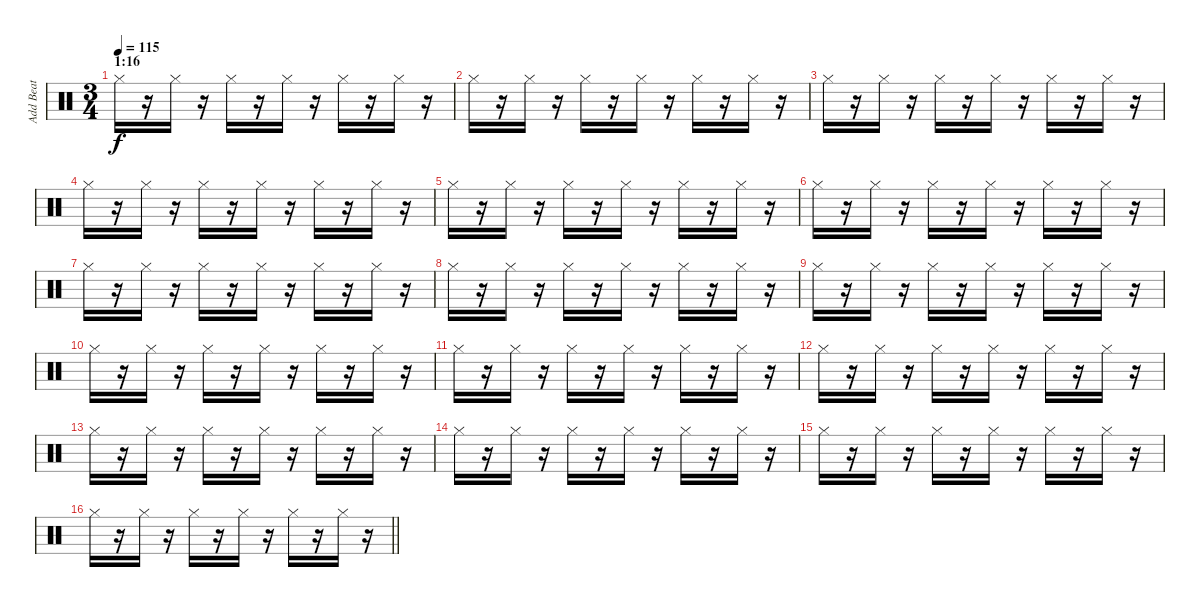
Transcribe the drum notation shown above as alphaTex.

\track ("Add Beat" "Add Beat") {instrument percussion}
\staff {score}
\articulation defaults
\ts (3 4)
\section ("" "1:16")
\tempo 115
\clef neutral
\ks c "Hi-Hat (closed)".16{dy f}
r.16 "Hi-Hat (closed)".16 r.16 "Hi-Hat (closed)".16 r.16 "Hi-Hat (closed)".16 r.16 "Hi-Hat (closed)".16 r.16 "Hi-Hat (closed)".16 r.16 |
"Hi-Hat (closed)".16 r.16 "Hi-Hat (closed)".16 r.16 "Hi-Hat (closed)".16 r.16 "Hi-Hat (closed)".16 r.16 "Hi-Hat (closed)".16 r.16 "Hi-Hat (closed)".16 r.16 |
"Hi-Hat (closed)".16 r.16 "Hi-Hat (closed)".16 r.16 "Hi-Hat (closed)".16 r.16 "Hi-Hat (closed)".16 r.16 "Hi-Hat (closed)".16 r.16 "Hi-Hat (closed)".16 r.16 |
"Hi-Hat (closed)".16 r.16 "Hi-Hat (closed)".16 r.16 "Hi-Hat (closed)".16 r.16 "Hi-Hat (closed)".16 r.16 "Hi-Hat (closed)".16 r.16 "Hi-Hat (closed)".16 r.16 |
"Hi-Hat (closed)".16 r.16 "Hi-Hat (closed)".16 r.16 "Hi-Hat (closed)".16 r.16 "Hi-Hat (closed)".16 r.16 "Hi-Hat (closed)".16 r.16 "Hi-Hat (closed)".16 r.16 |
"Hi-Hat (closed)".16 r.16 "Hi-Hat (closed)".16 r.16 "Hi-Hat (closed)".16 r.16 "Hi-Hat (closed)".16 r.16 "Hi-Hat (closed)".16 r.16 "Hi-Hat (closed)".16 r.16 |
"Hi-Hat (closed)".16 r.16 "Hi-Hat (closed)".16 r.16 "Hi-Hat (closed)".16 r.16 "Hi-Hat (closed)".16 r.16 "Hi-Hat (closed)".16 r.16 "Hi-Hat (closed)".16 r.16 |
"Hi-Hat (closed)".16 r.16 "Hi-Hat (closed)".16 r.16 "Hi-Hat (closed)".16 r.16 "Hi-Hat (closed)".16 r.16 "Hi-Hat (closed)".16 r.16 "Hi-Hat (closed)".16 r.16 |
"Hi-Hat (closed)".16 r.16 "Hi-Hat (closed)".16 r.16 "Hi-Hat (closed)".16 r.16 "Hi-Hat (closed)".16 r.16 "Hi-Hat (closed)".16 r.16 "Hi-Hat (closed)".16 r.16 |
"Hi-Hat (closed)".16 r.16 "Hi-Hat (closed)".16 r.16 "Hi-Hat (closed)".16 r.16 "Hi-Hat (closed)".16 r.16 "Hi-Hat (closed)".16 r.16 "Hi-Hat (closed)".16 r.16 |
"Hi-Hat (closed)".16 r.16 "Hi-Hat (closed)".16 r.16 "Hi-Hat (closed)".16 r.16 "Hi-Hat (closed)".16 r.16 "Hi-Hat (closed)".16 r.16 "Hi-Hat (closed)".16 r.16 |
"Hi-Hat (closed)".16 r.16 "Hi-Hat (closed)".16 r.16 "Hi-Hat (closed)".16 r.16 "Hi-Hat (closed)".16 r.16 "Hi-Hat (closed)".16 r.16 "Hi-Hat (closed)".16 r.16 |
"Hi-Hat (closed)".16 r.16 "Hi-Hat (closed)".16 r.16 "Hi-Hat (closed)".16 r.16 "Hi-Hat (closed)".16 r.16 "Hi-Hat (closed)".16 r.16 "Hi-Hat (closed)".16 r.16 |
"Hi-Hat (closed)".16 r.16 "Hi-Hat (closed)".16 r.16 "Hi-Hat (closed)".16 r.16 "Hi-Hat (closed)".16 r.16 "Hi-Hat (closed)".16 r.16 "Hi-Hat (closed)".16 r.16 |
"Hi-Hat (closed)".16 r.16 "Hi-Hat (closed)".16 r.16 "Hi-Hat (closed)".16 r.16 "Hi-Hat (closed)".16 r.16 "Hi-Hat (closed)".16 r.16 "Hi-Hat (closed)".16 r.16 |
\barLineRight lightlight "Hi-Hat (closed)".16
r.16 "Hi-Hat (closed)".16 r.16 "Hi-Hat (closed)".16 r.16 "Hi-Hat (closed)".16 r.16 "Hi-Hat (closed)".16 r.16 "Hi-Hat (closed)".16 r.16
